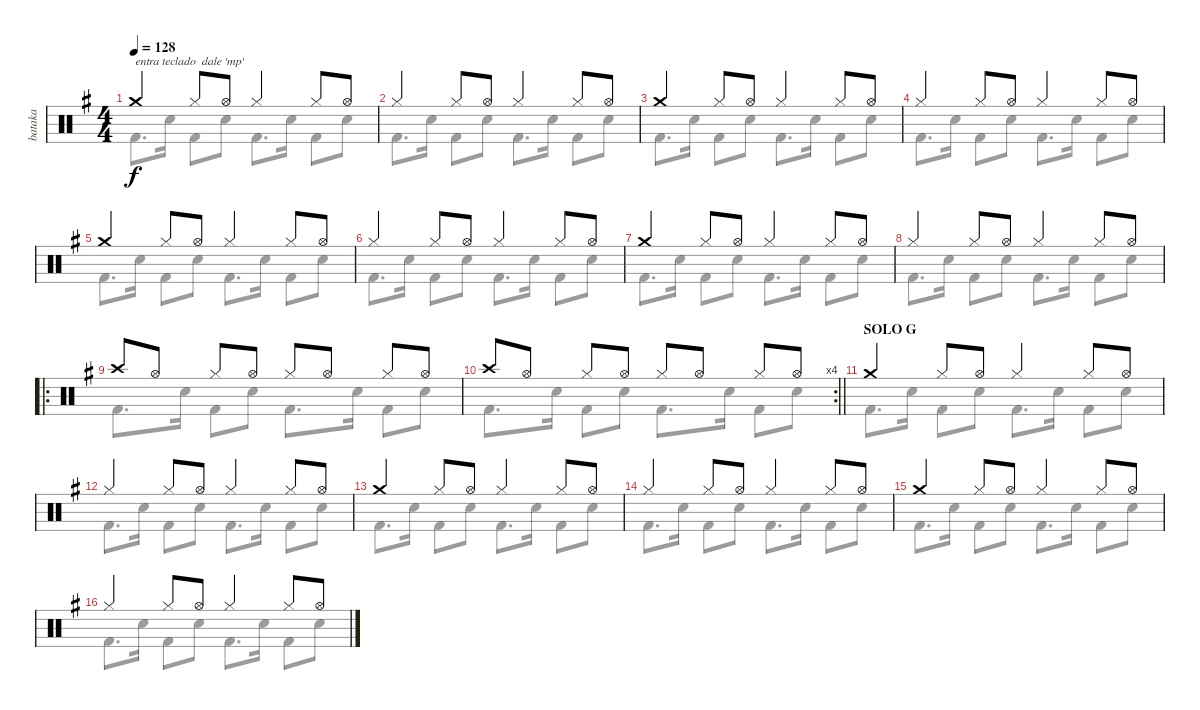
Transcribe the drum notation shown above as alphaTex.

\track ("bataka" "bataka") {mute instrument percussion}
\staff {score}
\articulation defaults
\voice
\ts (4 4)
\tempo 128
\clef neutral
\ks eminor "Crash medium (hit)".4{txt "entra teclado  dale 'mp'" dy f} "Hi-Hat (closed)".8 "Hi-Hat (open)".8 "Hi-Hat (closed)".4 "Hi-Hat (closed)".8 "Hi-Hat (open)".8
|
"Hi-Hat (closed)".4 "Hi-Hat (closed)".8 "Hi-Hat (open)".8 "Hi-Hat (closed)".4 "Hi-Hat (closed)".8 "Hi-Hat (open)".8 |
"Crash medium (hit)".4 "Hi-Hat (closed)".8 "Hi-Hat (open)".8 "Hi-Hat (closed)".4 "Hi-Hat (closed)".8 "Hi-Hat (open)".8 |
"Hi-Hat (closed)".4 "Hi-Hat (closed)".8 "Hi-Hat (open)".8 "Hi-Hat (closed)".4 "Hi-Hat (closed)".8 "Hi-Hat (open)".8 |
"Crash medium (hit)".4 "Hi-Hat (closed)".8 "Hi-Hat (open)".8 "Hi-Hat (closed)".4 "Hi-Hat (closed)".8 "Hi-Hat (open)".8 |
"Hi-Hat (closed)".4 "Hi-Hat (closed)".8 "Hi-Hat (open)".8 "Hi-Hat (closed)".4 "Hi-Hat (closed)".8 "Hi-Hat (open)".8 |
"Crash medium (hit)".4 "Hi-Hat (closed)".8 "Hi-Hat (open)".8 "Hi-Hat (closed)".4 "Hi-Hat (closed)".8 "Hi-Hat (open)".8 |
"Hi-Hat (closed)".4 "Hi-Hat (closed)".8 "Hi-Hat (open)".8 "Hi-Hat (closed)".4 "Hi-Hat (closed)".8 "Hi-Hat (open)".8 |
\ro "Crash high (hit)".8 "Hi-Hat (open)".8 "Hi-Hat (closed)".8 "Hi-Hat (open)".8 "Hi-Hat (closed)".8 "Hi-Hat (open)".8 "Hi-Hat (closed)".8 "Hi-Hat (open)".8
|
\rc 4
\barLineRight lightlight "Crash high (hit)".8 "Hi-Hat (open)".8 "Hi-Hat (closed)".8 "Hi-Hat (open)".8 "Hi-Hat (closed)".8 "Hi-Hat (open)".8 "Hi-Hat (closed)".8 "Hi-Hat (open)".8
|
\section ("" "SOLO G")
"Crash medium (hit)".4 "Hi-Hat (closed)".8 "Hi-Hat (open)".8 "Hi-Hat (closed)".4 "Hi-Hat (closed)".8 "Hi-Hat (open)".8 |
"Hi-Hat (closed)".4 "Hi-Hat (closed)".8 "Hi-Hat (open)".8 "Hi-Hat (closed)".4 "Hi-Hat (closed)".8 "Hi-Hat (open)".8 |
"Crash medium (hit)".4 "Hi-Hat (closed)".8 "Hi-Hat (open)".8 "Hi-Hat (closed)".4 "Hi-Hat (closed)".8 "Hi-Hat (open)".8 |
"Hi-Hat (closed)".4 "Hi-Hat (closed)".8 "Hi-Hat (open)".8 "Hi-Hat (closed)".4 "Hi-Hat (closed)".8 "Hi-Hat (open)".8 |
"Crash medium (hit)".4 "Hi-Hat (closed)".8 "Hi-Hat (open)".8 "Hi-Hat (closed)".4 "Hi-Hat (closed)".8 "Hi-Hat (open)".8 |
"Hi-Hat (closed)".4 "Hi-Hat (closed)".8 "Hi-Hat (open)".8 "Hi-Hat (closed)".4 "Hi-Hat (closed)".8 "Hi-Hat (open)".8
\voice
\clef neutral
\ottava regular
\simile none
\ks eminor "Kick (hit) 2".8{d dy f} "Snare (hit) 2".16 "Kick (hit) 2".8 "Snare (hit) 2".8 "Kick (hit) 2".8{d} "Snare (hit) 2".16 "Kick (hit) 2".8 "Snare (hit) 2".8
|
"Kick (hit) 2".8{d} "Snare (hit) 2".16 "Kick (hit) 2".8 "Snare (hit) 2".8 "Kick (hit) 2".8{d} "Snare (hit) 2".16 "Kick (hit) 2".8 "Snare (hit) 2".8 |
"Kick (hit) 2".8{d} "Snare (hit) 2".16 "Kick (hit) 2".8 "Snare (hit) 2".8 "Kick (hit) 2".8{d} "Snare (hit) 2".16 "Kick (hit) 2".8 "Snare (hit) 2".8 |
"Kick (hit) 2".8{d} "Snare (hit) 2".16 "Kick (hit) 2".8 "Snare (hit) 2".8 "Kick (hit) 2".8{d} "Snare (hit) 2".16 "Kick (hit) 2".8 "Snare (hit) 2".8 |
"Kick (hit) 2".8{d} "Snare (hit) 2".16 "Kick (hit) 2".8 "Snare (hit) 2".8 "Kick (hit) 2".8{d} "Snare (hit) 2".16 "Kick (hit) 2".8 "Snare (hit) 2".8 |
"Kick (hit) 2".8{d} "Snare (hit) 2".16 "Kick (hit) 2".8 "Snare (hit) 2".8 "Kick (hit) 2".8{d} "Snare (hit) 2".16 "Kick (hit) 2".8 "Snare (hit) 2".8 |
"Kick (hit) 2".8{d} "Snare (hit) 2".16 "Kick (hit) 2".8 "Snare (hit) 2".8 "Kick (hit) 2".8{d} "Snare (hit) 2".16 "Kick (hit) 2".8 "Snare (hit) 2".8 |
"Kick (hit) 2".8{d} "Snare (hit) 2".16 "Kick (hit) 2".8 "Snare (hit) 2".8 "Kick (hit) 2".8{d} "Snare (hit) 2".16 "Kick (hit) 2".8 "Snare (hit) 2".8 |
"Kick (hit) 2".8{d} "Snare (hit) 2".16 "Kick (hit) 2".8 "Snare (hit) 2".8 "Kick (hit) 2".8{d} "Snare (hit) 2".16 "Kick (hit) 2".8 "Snare (hit) 2".8 |
\barLineRight lightlight "Kick (hit) 2".8{d} "Snare (hit) 2".16 "Kick (hit) 2".8 "Snare (hit) 2".8 "Kick (hit) 2".8{d} "Snare (hit) 2".16 "Kick (hit) 2".8 "Snare (hit) 2".8
|
"Kick (hit) 2".8{d} "Snare (hit) 2".16 "Kick (hit) 2".8 "Snare (hit) 2".8 "Kick (hit) 2".8{d} "Snare (hit) 2".16 "Kick (hit) 2".8 "Snare (hit) 2".8 |
"Kick (hit) 2".8{d} "Snare (hit) 2".16 "Kick (hit) 2".8 "Snare (hit) 2".8 "Kick (hit) 2".8{d} "Snare (hit) 2".16 "Kick (hit) 2".8 "Snare (hit) 2".8 |
"Kick (hit) 2".8{d} "Snare (hit) 2".16 "Kick (hit) 2".8 "Snare (hit) 2".8 "Kick (hit) 2".8{d} "Snare (hit) 2".16 "Kick (hit) 2".8 "Snare (hit) 2".8 |
"Kick (hit) 2".8{d} "Snare (hit) 2".16 "Kick (hit) 2".8 "Snare (hit) 2".8 "Kick (hit) 2".8{d} "Snare (hit) 2".16 "Kick (hit) 2".8 "Snare (hit) 2".8 |
"Kick (hit) 2".8{d} "Snare (hit) 2".16 "Kick (hit) 2".8 "Snare (hit) 2".8 "Kick (hit) 2".8{d} "Snare (hit) 2".16 "Kick (hit) 2".8 "Snare (hit) 2".8 |
"Kick (hit) 2".8{d} "Snare (hit) 2".16 "Kick (hit) 2".8 "Snare (hit) 2".8 "Kick (hit) 2".8{d} "Snare (hit) 2".16 "Kick (hit) 2".8 "Snare (hit) 2".8
